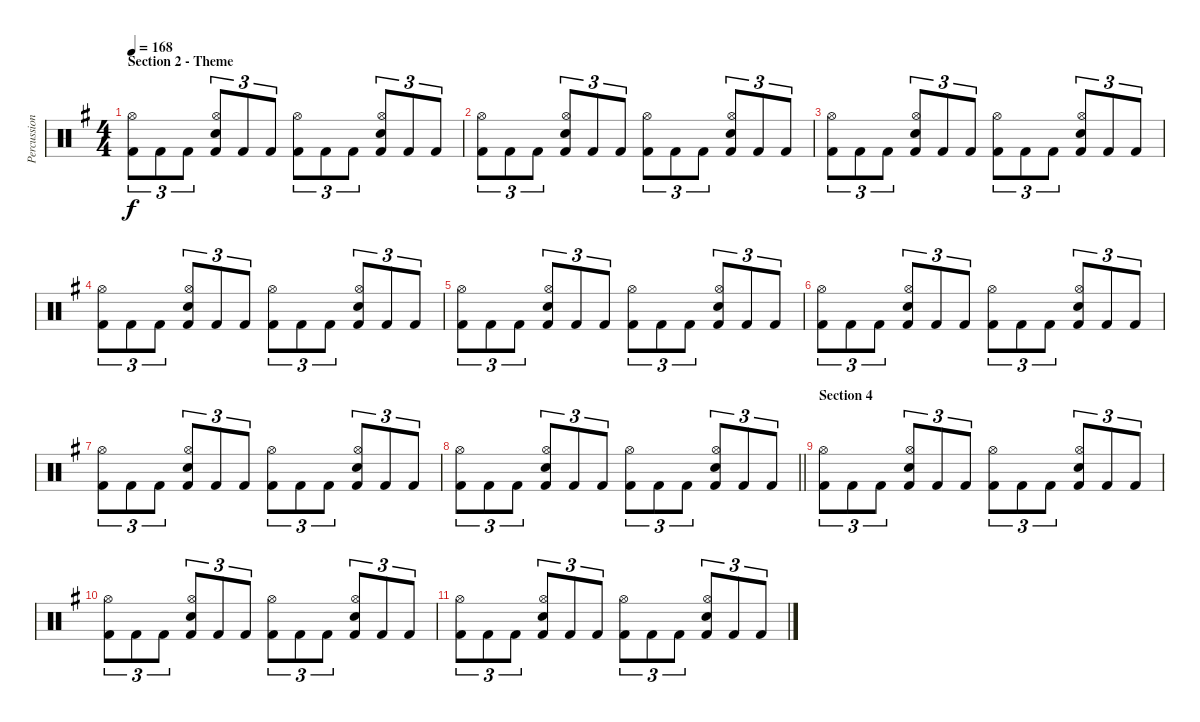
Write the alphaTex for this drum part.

\track ("Percussion" "Percussion") {instrument percussion}
\staff {score}
\articulation defaults
\ts (4 4)
\section ("" "Section 2 - Theme")
\tempo 168
\clef neutral
\ks eminor
("Kick (hit) 2" "Hi-Hat (open)").8{tu (3 2) dy f} "Kick (hit) 2".8{tu (3 2)} "Kick (hit) 2".8{tu (3 2)} ("Kick (hit) 2" "Electric Snare (hit)" "Hi-Hat (open)").8{tu (3 2)} "Kick (hit) 2".8{tu (3 2)} "Kick (hit) 2".8{tu (3 2)} ("Kick (hit) 2" "Hi-Hat (open)").8{tu (3 2)} "Kick (hit) 2".8{tu (3 2)} "Kick (hit) 2".8{tu (3 2)} ("Kick (hit) 2" "Electric Snare (hit)" "Hi-Hat (open)").8{tu (3 2)} "Kick (hit) 2".8{tu (3 2)} "Kick (hit) 2".8{tu (3 2)} |
("Kick (hit) 2" "Hi-Hat (open)").8{tu (3 2)} "Kick (hit) 2".8{tu (3 2)} "Kick (hit) 2".8{tu (3 2)} ("Kick (hit) 2" "Electric Snare (hit)" "Hi-Hat (open)").8{tu (3 2)} "Kick (hit) 2".8{tu (3 2)} "Kick (hit) 2".8{tu (3 2)} ("Kick (hit) 2" "Hi-Hat (open)").8{tu (3 2)} "Kick (hit) 2".8{tu (3 2)} "Kick (hit) 2".8{tu (3 2)} ("Kick (hit) 2" "Electric Snare (hit)" "Hi-Hat (open)").8{tu (3 2)} "Kick (hit) 2".8{tu (3 2)} "Kick (hit) 2".8{tu (3 2)} |
("Kick (hit) 2" "Hi-Hat (open)").8{tu (3 2)} "Kick (hit) 2".8{tu (3 2)} "Kick (hit) 2".8{tu (3 2)} ("Kick (hit) 2" "Electric Snare (hit)" "Hi-Hat (open)").8{tu (3 2)} "Kick (hit) 2".8{tu (3 2)} "Kick (hit) 2".8{tu (3 2)} ("Kick (hit) 2" "Hi-Hat (open)").8{tu (3 2)} "Kick (hit) 2".8{tu (3 2)} "Kick (hit) 2".8{tu (3 2)} ("Kick (hit) 2" "Electric Snare (hit)" "Hi-Hat (open)").8{tu (3 2)} "Kick (hit) 2".8{tu (3 2)} "Kick (hit) 2".8{tu (3 2)} |
("Kick (hit) 2" "Hi-Hat (open)").8{tu (3 2)} "Kick (hit) 2".8{tu (3 2)} "Kick (hit) 2".8{tu (3 2)} ("Kick (hit) 2" "Electric Snare (hit)" "Hi-Hat (open)").8{tu (3 2)} "Kick (hit) 2".8{tu (3 2)} "Kick (hit) 2".8{tu (3 2)} ("Kick (hit) 2" "Hi-Hat (open)").8{tu (3 2)} "Kick (hit) 2".8{tu (3 2)} "Kick (hit) 2".8{tu (3 2)} ("Kick (hit) 2" "Electric Snare (hit)" "Hi-Hat (open)").8{tu (3 2)} "Kick (hit) 2".8{tu (3 2)} "Kick (hit) 2".8{tu (3 2)} |
("Kick (hit) 2" "Hi-Hat (open)").8{tu (3 2)} "Kick (hit) 2".8{tu (3 2)} "Kick (hit) 2".8{tu (3 2)} ("Kick (hit) 2" "Electric Snare (hit)" "Hi-Hat (open)").8{tu (3 2)} "Kick (hit) 2".8{tu (3 2)} "Kick (hit) 2".8{tu (3 2)} ("Kick (hit) 2" "Hi-Hat (open)").8{tu (3 2)} "Kick (hit) 2".8{tu (3 2)} "Kick (hit) 2".8{tu (3 2)} ("Kick (hit) 2" "Electric Snare (hit)" "Hi-Hat (open)").8{tu (3 2)} "Kick (hit) 2".8{tu (3 2)} "Kick (hit) 2".8{tu (3 2)} |
("Kick (hit) 2" "Hi-Hat (open)").8{tu (3 2)} "Kick (hit) 2".8{tu (3 2)} "Kick (hit) 2".8{tu (3 2)} ("Kick (hit) 2" "Electric Snare (hit)" "Hi-Hat (open)").8{tu (3 2)} "Kick (hit) 2".8{tu (3 2)} "Kick (hit) 2".8{tu (3 2)} ("Kick (hit) 2" "Hi-Hat (open)").8{tu (3 2)} "Kick (hit) 2".8{tu (3 2)} "Kick (hit) 2".8{tu (3 2)} ("Kick (hit) 2" "Electric Snare (hit)" "Hi-Hat (open)").8{tu (3 2)} "Kick (hit) 2".8{tu (3 2)} "Kick (hit) 2".8{tu (3 2)} |
("Kick (hit) 2" "Hi-Hat (open)").8{tu (3 2)} "Kick (hit) 2".8{tu (3 2)} "Kick (hit) 2".8{tu (3 2)} ("Kick (hit) 2" "Electric Snare (hit)" "Hi-Hat (open)").8{tu (3 2)} "Kick (hit) 2".8{tu (3 2)} "Kick (hit) 2".8{tu (3 2)} ("Kick (hit) 2" "Hi-Hat (open)").8{tu (3 2)} "Kick (hit) 2".8{tu (3 2)} "Kick (hit) 2".8{tu (3 2)} ("Kick (hit) 2" "Electric Snare (hit)" "Hi-Hat (open)").8{tu (3 2)} "Kick (hit) 2".8{tu (3 2)} "Kick (hit) 2".8{tu (3 2)} |
\barLineRight lightlight
("Kick (hit) 2" "Hi-Hat (open)").8{tu (3 2)} "Kick (hit) 2".8{tu (3 2)} "Kick (hit) 2".8{tu (3 2)} ("Kick (hit) 2" "Electric Snare (hit)" "Hi-Hat (open)").8{tu (3 2)} "Kick (hit) 2".8{tu (3 2)} "Kick (hit) 2".8{tu (3 2)} ("Kick (hit) 2" "Hi-Hat (open)").8{tu (3 2)} "Kick (hit) 2".8{tu (3 2)} "Kick (hit) 2".8{tu (3 2)} ("Kick (hit) 2" "Electric Snare (hit)" "Hi-Hat (open)").8{tu (3 2)} "Kick (hit) 2".8{tu (3 2)} "Kick (hit) 2".8{tu (3 2)} |
\section ("" "Section 4")
("Kick (hit) 2" "Hi-Hat (open)").8{tu (3 2)} "Kick (hit) 2".8{tu (3 2)} "Kick (hit) 2".8{tu (3 2)} ("Kick (hit) 2" "Electric Snare (hit)" "Hi-Hat (open)").8{tu (3 2)} "Kick (hit) 2".8{tu (3 2)} "Kick (hit) 2".8{tu (3 2)} ("Kick (hit) 2" "Hi-Hat (open)").8{tu (3 2)} "Kick (hit) 2".8{tu (3 2)} "Kick (hit) 2".8{tu (3 2)} ("Kick (hit) 2" "Electric Snare (hit)" "Hi-Hat (open)").8{tu (3 2)} "Kick (hit) 2".8{tu (3 2)} "Kick (hit) 2".8{tu (3 2)} |
("Kick (hit) 2" "Hi-Hat (open)").8{tu (3 2)} "Kick (hit) 2".8{tu (3 2)} "Kick (hit) 2".8{tu (3 2)} ("Kick (hit) 2" "Electric Snare (hit)" "Hi-Hat (open)").8{tu (3 2)} "Kick (hit) 2".8{tu (3 2)} "Kick (hit) 2".8{tu (3 2)} ("Kick (hit) 2" "Hi-Hat (open)").8{tu (3 2)} "Kick (hit) 2".8{tu (3 2)} "Kick (hit) 2".8{tu (3 2)} ("Kick (hit) 2" "Electric Snare (hit)" "Hi-Hat (open)").8{tu (3 2)} "Kick (hit) 2".8{tu (3 2)} "Kick (hit) 2".8{tu (3 2)} |
("Kick (hit) 2" "Hi-Hat (open)").8{tu (3 2)} "Kick (hit) 2".8{tu (3 2)} "Kick (hit) 2".8{tu (3 2)} ("Kick (hit) 2" "Electric Snare (hit)" "Hi-Hat (open)").8{tu (3 2)} "Kick (hit) 2".8{tu (3 2)} "Kick (hit) 2".8{tu (3 2)} ("Kick (hit) 2" "Hi-Hat (open)").8{tu (3 2)} "Kick (hit) 2".8{tu (3 2)} "Kick (hit) 2".8{tu (3 2)} ("Kick (hit) 2" "Electric Snare (hit)" "Hi-Hat (open)").8{tu (3 2)} "Kick (hit) 2".8{tu (3 2)} "Kick (hit) 2".8{tu (3 2)}
